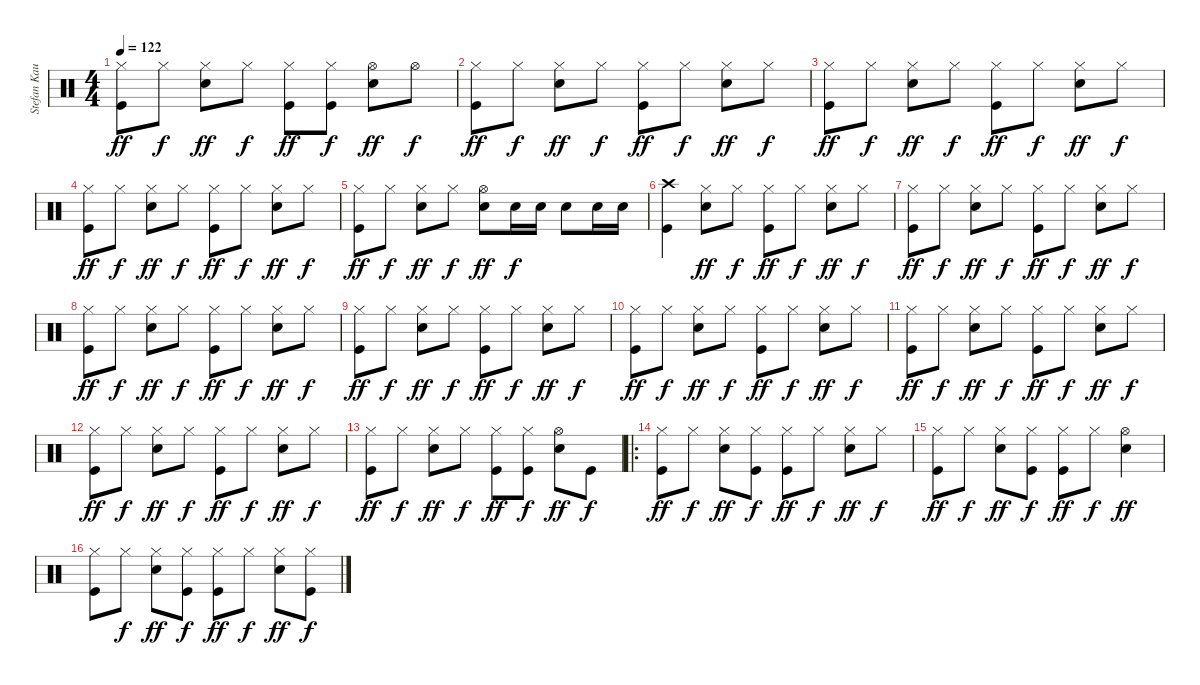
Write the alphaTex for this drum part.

\track ("Stefan Kaufmann" "Stefan Kau") {instrument percussion}
\staff {score}
\articulation defaults
\ts (4 4)
\tempo 122
\clef neutral
\ks c
("Hi-Hat (closed)" "Kick (hit)").8{dy ff} "Hi-Hat (closed)".8{dy f} ("Hi-Hat (closed)" "Snare (hit) 2").8{dy ff} "Hi-Hat (closed)".8{dy f} ("Hi-Hat (closed)" "Kick (hit)").8{dy ff} ("Hi-Hat (closed)" "Kick (hit)").8{dy f} ("Hi-Hat (open)" "Snare (hit) 2").8{dy ff} "Hi-Hat (open)".8{dy f} |
("Hi-Hat (closed)" "Kick (hit)").8{dy ff} "Hi-Hat (closed)".8{dy f} ("Hi-Hat (closed)" "Snare (hit) 2").8{dy ff} "Hi-Hat (closed)".8{dy f} ("Hi-Hat (closed)" "Kick (hit)").8{dy ff} "Hi-Hat (closed)".8{dy f} ("Hi-Hat (closed)" "Snare (hit) 2").8{dy ff} "Hi-Hat (closed)".8{dy f} |
("Hi-Hat (closed)" "Kick (hit)").8{dy ff} "Hi-Hat (closed)".8{dy f} ("Hi-Hat (closed)" "Snare (hit) 2").8{dy ff} "Hi-Hat (closed)".8{dy f} ("Hi-Hat (closed)" "Kick (hit)").8{dy ff} "Hi-Hat (closed)".8{dy f} ("Hi-Hat (closed)" "Snare (hit) 2").8{dy ff} "Hi-Hat (closed)".8{dy f} |
("Hi-Hat (closed)" "Kick (hit)").8{dy ff} "Hi-Hat (closed)".8{dy f} ("Hi-Hat (closed)" "Snare (hit) 2").8{dy ff} "Hi-Hat (closed)".8{dy f} ("Hi-Hat (closed)" "Kick (hit)").8{dy ff} "Hi-Hat (closed)".8{dy f} ("Hi-Hat (closed)" "Snare (hit) 2").8{dy ff} "Hi-Hat (closed)".8{dy f} |
("Hi-Hat (closed)" "Kick (hit)").8{dy ff} "Hi-Hat (closed)".8{dy f} ("Hi-Hat (closed)" "Snare (hit) 2").8{dy ff} "Hi-Hat (closed)".8{dy f} ("Hi-Hat (open)" "Snare (hit) 2").8{dy ff} "Snare (hit) 2".16{dy f} "Snare (hit) 2".16 "Snare (hit) 2".8 "Snare (hit) 2".16 "Snare (hit) 2".16 |
("Crash high (hit)" "Kick (hit)").4 ("Hi-Hat (closed)" "Snare (hit) 2").8{dy ff} "Hi-Hat (closed)".8{dy f} ("Hi-Hat (closed)" "Kick (hit)").8{dy ff} "Hi-Hat (closed)".8{dy f} ("Hi-Hat (closed)" "Snare (hit) 2").8{dy ff} "Hi-Hat (closed)".8{dy f} |
("Hi-Hat (closed)" "Kick (hit)").8{dy ff} "Hi-Hat (closed)".8{dy f} ("Hi-Hat (closed)" "Snare (hit) 2").8{dy ff} "Hi-Hat (closed)".8{dy f} ("Hi-Hat (closed)" "Kick (hit)").8{dy ff} "Hi-Hat (closed)".8{dy f} ("Hi-Hat (closed)" "Snare (hit) 2").8{dy ff} "Hi-Hat (closed)".8{dy f} |
("Hi-Hat (closed)" "Kick (hit)").8{dy ff} "Hi-Hat (closed)".8{dy f} ("Hi-Hat (closed)" "Snare (hit) 2").8{dy ff} "Hi-Hat (closed)".8{dy f} ("Hi-Hat (closed)" "Kick (hit)").8{dy ff} "Hi-Hat (closed)".8{dy f} ("Hi-Hat (closed)" "Snare (hit) 2").8{dy ff} "Hi-Hat (closed)".8{dy f} |
("Hi-Hat (closed)" "Kick (hit)").8{dy ff} "Hi-Hat (closed)".8{dy f} ("Hi-Hat (closed)" "Snare (hit) 2").8{dy ff} "Hi-Hat (closed)".8{dy f} ("Hi-Hat (closed)" "Kick (hit)").8{dy ff} "Hi-Hat (closed)".8{dy f} ("Hi-Hat (closed)" "Snare (hit) 2").8{dy ff} "Hi-Hat (closed)".8{dy f} |
("Hi-Hat (closed)" "Kick (hit)").8{dy ff} "Hi-Hat (closed)".8{dy f} ("Hi-Hat (closed)" "Snare (hit) 2").8{dy ff} "Hi-Hat (closed)".8{dy f} ("Hi-Hat (closed)" "Kick (hit)").8{dy ff} "Hi-Hat (closed)".8{dy f} ("Hi-Hat (closed)" "Snare (hit) 2").8{dy ff} "Hi-Hat (closed)".8{dy f} |
("Hi-Hat (closed)" "Kick (hit)").8{dy ff} "Hi-Hat (closed)".8{dy f} ("Hi-Hat (closed)" "Snare (hit) 2").8{dy ff} "Hi-Hat (closed)".8{dy f} ("Hi-Hat (closed)" "Kick (hit)").8{dy ff} "Hi-Hat (closed)".8{dy f} ("Hi-Hat (closed)" "Snare (hit) 2").8{dy ff} "Hi-Hat (closed)".8{dy f} |
("Hi-Hat (closed)" "Kick (hit)").8{dy ff} "Hi-Hat (closed)".8{dy f} ("Hi-Hat (closed)" "Snare (hit) 2").8{dy ff} "Hi-Hat (closed)".8{dy f} ("Hi-Hat (closed)" "Kick (hit)").8{dy ff} "Hi-Hat (closed)".8{dy f} ("Hi-Hat (closed)" "Snare (hit) 2").8{dy ff} "Hi-Hat (closed)".8{dy f} |
("Hi-Hat (closed)" "Kick (hit)").8{dy ff} "Hi-Hat (closed)".8{dy f} ("Hi-Hat (closed)" "Snare (hit) 2").8{dy ff} "Hi-Hat (closed)".8{dy f} ("Hi-Hat (closed)" "Kick (hit)").8{dy ff} ("Hi-Hat (closed)" "Kick (hit)").8{dy f} ("Hi-Hat (open)" "Snare (hit) 2").8{dy ff} "Kick (hit)".8{dy f} |
\ro
("Hi-Hat (closed)" "Kick (hit)").8{dy ff} "Hi-Hat (closed)".8{dy f} ("Hi-Hat (closed)" "Snare (hit) 2").8{dy ff} ("Hi-Hat (closed)" "Kick (hit)").8{dy f} ("Hi-Hat (closed)" "Kick (hit)").8{dy ff} "Hi-Hat (closed)".8{dy f} ("Hi-Hat (closed)" "Snare (hit) 2").8{dy ff} "Hi-Hat (closed)".8{dy f} |
("Hi-Hat (closed)" "Kick (hit)").8{dy ff} "Hi-Hat (closed)".8{dy f} ("Hi-Hat (closed)" "Snare (hit) 2").8{dy ff} ("Hi-Hat (closed)" "Kick (hit)").8{dy f} ("Hi-Hat (closed)" "Kick (hit)").8{dy ff} "Hi-Hat (closed)".8{dy f} ("Hi-Hat (open)" "Snare (hit) 2").4{dy ff} |
("Hi-Hat (closed)" "Kick (hit)").8 "Hi-Hat (closed)".8{dy f} ("Hi-Hat (closed)" "Snare (hit) 2").8{dy ff} ("Hi-Hat (closed)" "Kick (hit)").8{dy f} ("Hi-Hat (closed)" "Kick (hit)").8{dy ff} "Hi-Hat (closed)".8{dy f} ("Hi-Hat (closed)" "Snare (hit) 2").8{dy ff} ("Hi-Hat (closed)" "Kick (hit)").8{dy f}
